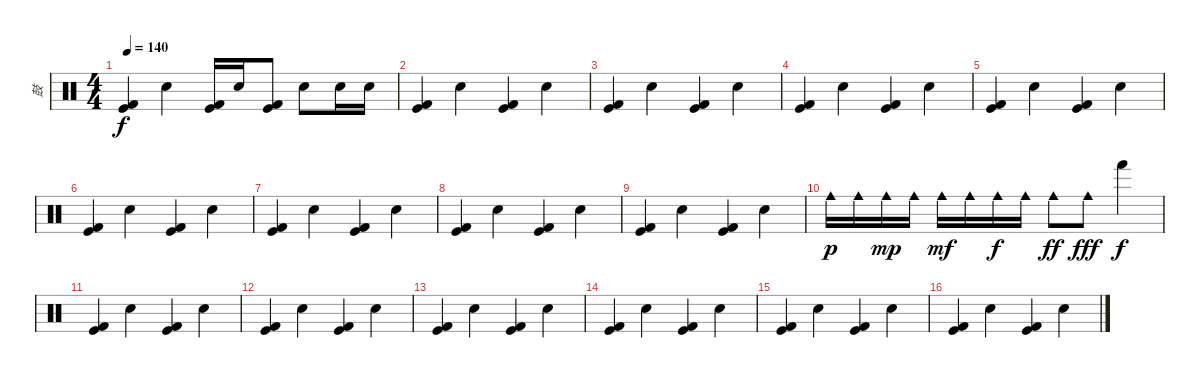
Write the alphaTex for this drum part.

\track ("鼓" "鼓") {instrument percussion}
\staff {score}
\articulation defaults
\ts (4 4)
\tempo 140
\clef neutral
\ks c
("Kick (hit)" "Kick (hit) 2").4{dy f} "Snare (hit) 2".4 ("Kick (hit)" "Kick (hit) 2").16 "Snare (hit) 2".16 ("Kick (hit)" "Kick (hit) 2").8 "Snare (hit) 2".8 "Snare (hit) 2".16 "Snare (hit) 2".16 |
("Kick (hit)" "Kick (hit) 2").4 "Snare (hit) 2".4 ("Kick (hit)" "Kick (hit) 2").4 "Snare (hit) 2".4 |
("Kick (hit)" "Kick (hit) 2").4 "Snare (hit) 2".4 ("Kick (hit)" "Kick (hit) 2").4 "Snare (hit) 2".4 |
("Kick (hit)" "Kick (hit) 2").4 "Snare (hit) 2".4 ("Kick (hit)" "Kick (hit) 2").4 "Snare (hit) 2".4 |
("Kick (hit)" "Kick (hit) 2").4 "Snare (hit) 2".4 ("Kick (hit)" "Kick (hit) 2").4 "Snare (hit) 2".4 |
("Kick (hit)" "Kick (hit) 2").4 "Snare (hit) 2".4 ("Kick (hit)" "Kick (hit) 2").4 "Snare (hit) 2".4 |
("Kick (hit)" "Kick (hit) 2").4 "Snare (hit) 2".4 ("Kick (hit)" "Kick (hit) 2").4 "Snare (hit) 2".4 |
("Kick (hit)" "Kick (hit) 2").4 "Snare (hit) 2".4 ("Kick (hit)" "Kick (hit) 2").4 "Snare (hit) 2".4 |
("Kick (hit)" "Kick (hit) 2").4 "Snare (hit) 2".4 ("Kick (hit)" "Kick (hit) 2").4 "Snare (hit) 2".4 |
"Cowbell medium (hit)".16{dy p} "Cowbell medium (hit)".16 "Cowbell medium (hit)".16{dy mp} "Cowbell medium (hit)".16 "Cowbell medium (hit)".16{dy mf} "Cowbell medium (hit)".16 "Cowbell medium (hit)".16{dy f} "Cowbell medium (hit)".16 "Cowbell medium (hit)".8{dy ff} "Cowbell medium (hit)".8{dy fff} "Hand (hit)".4{dy f} |
("Kick (hit)" "Kick (hit) 2").4 "Snare (hit) 2".4 ("Kick (hit)" "Kick (hit) 2").4 "Snare (hit) 2".4 |
("Kick (hit)" "Kick (hit) 2").4 "Snare (hit) 2".4 ("Kick (hit)" "Kick (hit) 2").4 "Snare (hit) 2".4 |
("Kick (hit)" "Kick (hit) 2").4 "Snare (hit) 2".4 ("Kick (hit)" "Kick (hit) 2").4 "Snare (hit) 2".4 |
("Kick (hit)" "Kick (hit) 2").4 "Snare (hit) 2".4 ("Kick (hit)" "Kick (hit) 2").4 "Snare (hit) 2".4 |
("Kick (hit)" "Kick (hit) 2").4 "Snare (hit) 2".4 ("Kick (hit)" "Kick (hit) 2").4 "Snare (hit) 2".4 |
("Kick (hit)" "Kick (hit) 2").4 "Snare (hit) 2".4 ("Kick (hit)" "Kick (hit) 2").4 "Snare (hit) 2".4
